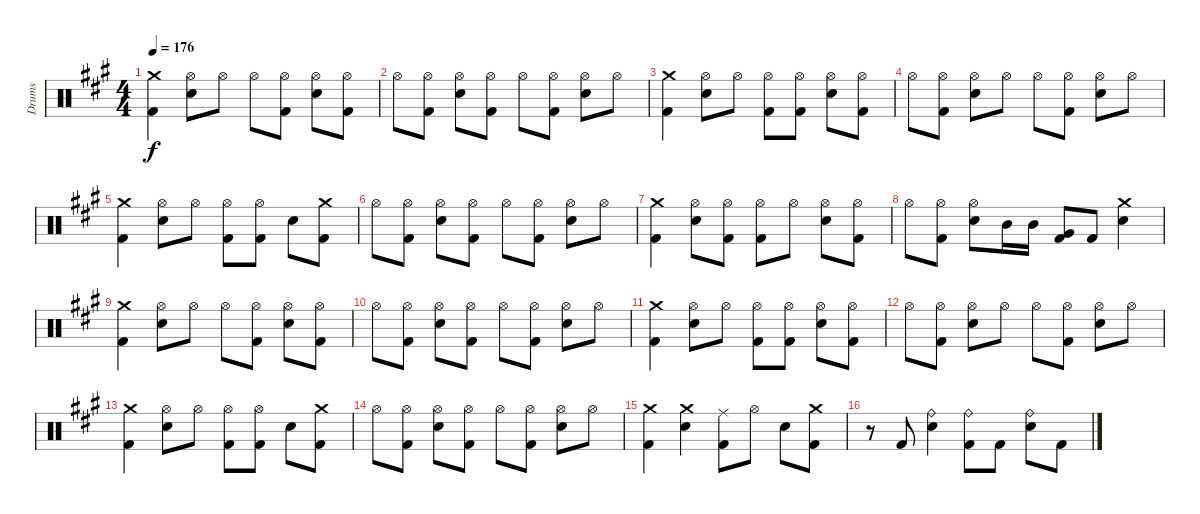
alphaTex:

\track ("Drums" "Drums") {instrument percussion}
\staff {score}
\articulation defaults
\ts (4 4)
\tempo 176
\clef neutral
\ks a
("Crash medium (hit)" "Kick (hit) 2").4{dy f} ("Hi-Hat (open)" "Electric Snare (hit)").8 "Hi-Hat (open)".8 "Hi-Hat (open)".8 ("Hi-Hat (open)" "Kick (hit) 2").8 ("Hi-Hat (open)" "Electric Snare (hit)").8 ("Hi-Hat (open)" "Kick (hit) 2").8 |
"Hi-Hat (open)".8 ("Hi-Hat (open)" "Kick (hit) 2").8 ("Hi-Hat (open)" "Electric Snare (hit)").8 ("Hi-Hat (open)" "Kick (hit) 2").8 "Hi-Hat (open)".8 ("Hi-Hat (open)" "Kick (hit) 2").8 ("Hi-Hat (open)" "Electric Snare (hit)").8 "Hi-Hat (open)".8 |
("Crash medium (hit)" "Kick (hit) 2").4 ("Hi-Hat (open)" "Electric Snare (hit)").8 "Hi-Hat (open)".8 ("Hi-Hat (open)" "Kick (hit) 2").8 ("Hi-Hat (open)" "Kick (hit) 2").8 ("Hi-Hat (open)" "Electric Snare (hit)").8 ("Hi-Hat (open)" "Kick (hit) 2").8 |
"Hi-Hat (open)".8 ("Hi-Hat (open)" "Kick (hit) 2").8 ("Hi-Hat (open)" "Electric Snare (hit)").8 "Hi-Hat (open)".8 "Hi-Hat (open)".8 ("Hi-Hat (open)" "Kick (hit) 2").8 ("Hi-Hat (open)" "Electric Snare (hit)").8 "Hi-Hat (open)".8 |
("Crash medium (hit)" "Kick (hit) 2").4 ("Hi-Hat (open)" "Electric Snare (hit)").8 "Hi-Hat (open)".8 ("Hi-Hat (open)" "Kick (hit) 2").8 ("Hi-Hat (open)" "Kick (hit) 2").8 "Electric Snare (hit)".8 ("Crash medium (hit)" "Kick (hit) 2").8 |
"Hi-Hat (open)".8 ("Hi-Hat (open)" "Kick (hit) 2").8 ("Hi-Hat (open)" "Electric Snare (hit)").8 ("Hi-Hat (open)" "Kick (hit) 2").8 "Hi-Hat (open)".8 ("Hi-Hat (open)" "Kick (hit) 2").8 ("Hi-Hat (open)" "Electric Snare (hit)").8 "Hi-Hat (open)".8 |
("Crash medium (hit)" "Kick (hit) 2").4 ("Hi-Hat (open)" "Electric Snare (hit)").8 ("Hi-Hat (open)" "Kick (hit) 2").8 ("Hi-Hat (open)" "Kick (hit) 2").8 "Hi-Hat (open)".8 ("Hi-Hat (open)" "Electric Snare (hit)").8 ("Hi-Hat (open)" "Kick (hit) 2").8 |
"Hi-Hat (open)".8 ("Hi-Hat (open)" "Kick (hit) 2").8 ("Hi-Hat (open)" "Electric Snare (hit)").8 "Mid Tom (hit)".16 "Mid Tom (hit)".16 ("Very Low Tom (hit)" "Kick (hit) 2").8 "Kick (hit) 2".8 ("Crash medium (hit)" "Electric Snare (hit)").4 |
("Crash medium (hit)" "Kick (hit) 2").4 ("Hi-Hat (open)" "Electric Snare (hit)").8 "Hi-Hat (open)".8 "Hi-Hat (open)".8 ("Hi-Hat (open)" "Kick (hit) 2").8 ("Hi-Hat (open)" "Electric Snare (hit)").8 ("Hi-Hat (open)" "Kick (hit) 2").8 |
"Hi-Hat (open)".8 ("Hi-Hat (open)" "Kick (hit) 2").8 ("Hi-Hat (open)" "Electric Snare (hit)").8 ("Hi-Hat (open)" "Kick (hit) 2").8 "Hi-Hat (open)".8 ("Hi-Hat (open)" "Kick (hit) 2").8 ("Hi-Hat (open)" "Electric Snare (hit)").8 "Hi-Hat (open)".8 |
("Crash medium (hit)" "Kick (hit) 2").4 ("Hi-Hat (open)" "Electric Snare (hit)").8 "Hi-Hat (open)".8 ("Hi-Hat (open)" "Kick (hit) 2").8 ("Hi-Hat (open)" "Kick (hit) 2").8 ("Hi-Hat (open)" "Electric Snare (hit)").8 ("Hi-Hat (open)" "Kick (hit) 2").8 |
"Hi-Hat (open)".8 ("Hi-Hat (open)" "Kick (hit) 2").8 ("Hi-Hat (open)" "Electric Snare (hit)").8 "Hi-Hat (open)".8 "Hi-Hat (open)".8 ("Hi-Hat (open)" "Kick (hit) 2").8 ("Hi-Hat (open)" "Electric Snare (hit)").8 "Hi-Hat (open)".8 |
("Crash medium (hit)" "Kick (hit) 2").4 ("Hi-Hat (open)" "Electric Snare (hit)").8 "Hi-Hat (open)".8 ("Hi-Hat (open)" "Kick (hit) 2").8 ("Hi-Hat (open)" "Kick (hit) 2").8 "Electric Snare (hit)".8 ("Crash medium (hit)" "Kick (hit) 2").8 |
"Hi-Hat (open)".8 ("Hi-Hat (open)" "Kick (hit) 2").8 ("Hi-Hat (open)" "Electric Snare (hit)").8 ("Hi-Hat (open)" "Kick (hit) 2").8 "Hi-Hat (open)".8 ("Hi-Hat (open)" "Kick (hit) 2").8 ("Hi-Hat (open)" "Electric Snare (hit)").8 "Hi-Hat (open)".8 |
("Crash medium (hit)" "Kick (hit) 2").4 ("Crash medium (hit)" "Electric Snare (hit)").4 ("Ride (middle)" "Kick (hit) 2").8 "Hi-Hat (open)".8 "Electric Snare (hit)".8 ("Crash medium (hit)" "Kick (hit) 2").8 |
r.8 "Kick (hit) 2".8 ("Ride (bell)" "Electric Snare (hit)").4 ("Ride (bell)" "Kick (hit) 2").8 "Kick (hit) 2".8 ("Ride (bell)" "Electric Snare (hit)").8 "Kick (hit) 2".8
